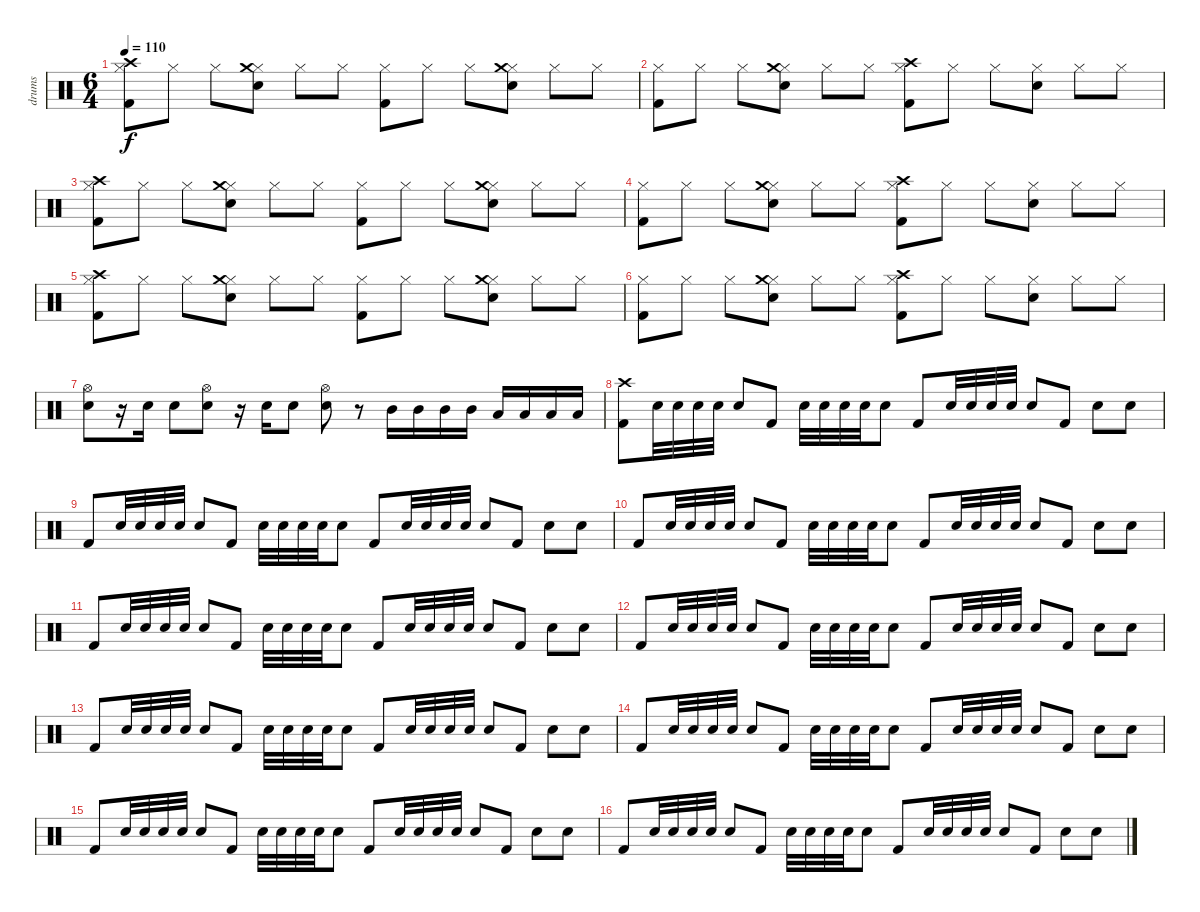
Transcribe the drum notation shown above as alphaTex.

\track ("drums" "drums") {instrument percussion}
\staff {score}
\articulation defaults
\ts (6 4)
\tempo 110
\clef neutral
\ks c
("Hi-Hat (closed)" "Kick (hit) 2" "Crash high (hit)").8{dy f} "Hi-Hat (closed)".8 "Hi-Hat (closed)".8 ("Hi-Hat (closed)" "Snare (hit) 2" "Crash medium (hit)").8 "Hi-Hat (closed)".8 "Hi-Hat (closed)".8 ("Hi-Hat (closed)" "Kick (hit) 2").8 "Hi-Hat (closed)".8 "Hi-Hat (closed)".8 ("Hi-Hat (closed)" "Snare (hit) 2" "Crash medium (hit)").8 "Hi-Hat (closed)".8 "Hi-Hat (closed)".8 |
("Hi-Hat (closed)" "Kick (hit) 2").8 "Hi-Hat (closed)".8 "Hi-Hat (closed)".8 ("Hi-Hat (closed)" "Snare (hit) 2" "Crash medium (hit)").8 "Hi-Hat (closed)".8 "Hi-Hat (closed)".8 ("Hi-Hat (closed)" "Kick (hit) 2" "Crash high (hit)").8 "Hi-Hat (closed)".8 "Hi-Hat (closed)".8 ("Hi-Hat (closed)" "Snare (hit) 2").8 "Hi-Hat (closed)".8 "Hi-Hat (closed)".8 |
("Hi-Hat (closed)" "Kick (hit) 2" "Crash high (hit)").8 "Hi-Hat (closed)".8 "Hi-Hat (closed)".8 ("Hi-Hat (closed)" "Snare (hit) 2" "Crash medium (hit)").8 "Hi-Hat (closed)".8 "Hi-Hat (closed)".8 ("Hi-Hat (closed)" "Kick (hit) 2").8 "Hi-Hat (closed)".8 "Hi-Hat (closed)".8 ("Hi-Hat (closed)" "Snare (hit) 2" "Crash medium (hit)").8 "Hi-Hat (closed)".8 "Hi-Hat (closed)".8 |
("Hi-Hat (closed)" "Kick (hit) 2").8 "Hi-Hat (closed)".8 "Hi-Hat (closed)".8 ("Hi-Hat (closed)" "Snare (hit) 2" "Crash medium (hit)").8 "Hi-Hat (closed)".8 "Hi-Hat (closed)".8 ("Hi-Hat (closed)" "Kick (hit) 2" "Crash high (hit)").8 "Hi-Hat (closed)".8 "Hi-Hat (closed)".8 ("Hi-Hat (closed)" "Snare (hit) 2").8 "Hi-Hat (closed)".8 "Hi-Hat (closed)".8 |
("Hi-Hat (closed)" "Kick (hit) 2" "Crash high (hit)").8 "Hi-Hat (closed)".8 "Hi-Hat (closed)".8 ("Hi-Hat (closed)" "Snare (hit) 2" "Crash medium (hit)").8 "Hi-Hat (closed)".8 "Hi-Hat (closed)".8 ("Hi-Hat (closed)" "Kick (hit) 2").8 "Hi-Hat (closed)".8 "Hi-Hat (closed)".8 ("Hi-Hat (closed)" "Snare (hit) 2" "Crash medium (hit)").8 "Hi-Hat (closed)".8 "Hi-Hat (closed)".8 |
("Hi-Hat (closed)" "Kick (hit) 2").8 "Hi-Hat (closed)".8 "Hi-Hat (closed)".8 ("Hi-Hat (closed)" "Snare (hit) 2" "Crash medium (hit)").8 "Hi-Hat (closed)".8 "Hi-Hat (closed)".8 ("Hi-Hat (closed)" "Kick (hit) 2" "Crash high (hit)").8 "Hi-Hat (closed)".8 "Hi-Hat (closed)".8 ("Hi-Hat (closed)" "Snare (hit) 2").8 "Hi-Hat (closed)".8 "Hi-Hat (closed)".8 |
("Hi-Hat (open)" "Snare (hit) 2").8 r.16 "Snare (hit) 2".16 "Snare (hit) 2".8 ("Hi-Hat (open)" "Snare (hit) 2").8 r.16 "Snare (hit) 2".16 "Snare (hit) 2".8 ("Hi-Hat (open)" "Snare (hit) 2").8 r.8 "Mid Tom (hit)".16 "Mid Tom (hit)".16 "Mid Tom (hit)".16 "Mid Tom (hit)".16 "Low Tom (hit)".16 "Low Tom (hit)".16 "Low Tom (hit)".16 "Low Tom (hit)".16 |
("Crash high (hit)" "Kick (hit) 2").8 "Electric Snare (hit)".32 "Electric Snare (hit)".32 "Electric Snare (hit)".32 "Electric Snare (hit)".32 "Electric Snare (hit)".8 "Kick (hit) 2".8 "Electric Snare (hit)".32 "Electric Snare (hit)".32 "Electric Snare (hit)".32 "Electric Snare (hit)".32 "Electric Snare (hit)".8 "Kick (hit) 2".8 "Electric Snare (hit)".32 "Electric Snare (hit)".32 "Electric Snare (hit)".32 "Electric Snare (hit)".32 "Electric Snare (hit)".8 "Kick (hit) 2".8 "Electric Snare (hit)".8 "Electric Snare (hit)".8 |
"Kick (hit) 2".8 "Electric Snare (hit)".32 "Electric Snare (hit)".32 "Electric Snare (hit)".32 "Electric Snare (hit)".32 "Electric Snare (hit)".8 "Kick (hit) 2".8 "Electric Snare (hit)".32 "Electric Snare (hit)".32 "Electric Snare (hit)".32 "Electric Snare (hit)".32 "Electric Snare (hit)".8 "Kick (hit) 2".8 "Electric Snare (hit)".32 "Electric Snare (hit)".32 "Electric Snare (hit)".32 "Electric Snare (hit)".32 "Electric Snare (hit)".8 "Kick (hit) 2".8 "Electric Snare (hit)".8 "Electric Snare (hit)".8 |
"Kick (hit) 2".8 "Electric Snare (hit)".32 "Electric Snare (hit)".32 "Electric Snare (hit)".32 "Electric Snare (hit)".32 "Electric Snare (hit)".8 "Kick (hit) 2".8 "Electric Snare (hit)".32 "Electric Snare (hit)".32 "Electric Snare (hit)".32 "Electric Snare (hit)".32 "Electric Snare (hit)".8 "Kick (hit) 2".8 "Electric Snare (hit)".32 "Electric Snare (hit)".32 "Electric Snare (hit)".32 "Electric Snare (hit)".32 "Electric Snare (hit)".8 "Kick (hit) 2".8 "Electric Snare (hit)".8 "Electric Snare (hit)".8 |
"Kick (hit) 2".8 "Electric Snare (hit)".32 "Electric Snare (hit)".32 "Electric Snare (hit)".32 "Electric Snare (hit)".32 "Electric Snare (hit)".8 "Kick (hit) 2".8 "Electric Snare (hit)".32 "Electric Snare (hit)".32 "Electric Snare (hit)".32 "Electric Snare (hit)".32 "Electric Snare (hit)".8 "Kick (hit) 2".8 "Electric Snare (hit)".32 "Electric Snare (hit)".32 "Electric Snare (hit)".32 "Electric Snare (hit)".32 "Electric Snare (hit)".8 "Kick (hit) 2".8 "Electric Snare (hit)".8 "Electric Snare (hit)".8 |
"Kick (hit) 2".8 "Electric Snare (hit)".32 "Electric Snare (hit)".32 "Electric Snare (hit)".32 "Electric Snare (hit)".32 "Electric Snare (hit)".8 "Kick (hit) 2".8 "Electric Snare (hit)".32 "Electric Snare (hit)".32 "Electric Snare (hit)".32 "Electric Snare (hit)".32 "Electric Snare (hit)".8 "Kick (hit) 2".8 "Electric Snare (hit)".32 "Electric Snare (hit)".32 "Electric Snare (hit)".32 "Electric Snare (hit)".32 "Electric Snare (hit)".8 "Kick (hit) 2".8 "Electric Snare (hit)".8 "Electric Snare (hit)".8 |
"Kick (hit) 2".8 "Electric Snare (hit)".32 "Electric Snare (hit)".32 "Electric Snare (hit)".32 "Electric Snare (hit)".32 "Electric Snare (hit)".8 "Kick (hit) 2".8 "Electric Snare (hit)".32 "Electric Snare (hit)".32 "Electric Snare (hit)".32 "Electric Snare (hit)".32 "Electric Snare (hit)".8 "Kick (hit) 2".8 "Electric Snare (hit)".32 "Electric Snare (hit)".32 "Electric Snare (hit)".32 "Electric Snare (hit)".32 "Electric Snare (hit)".8 "Kick (hit) 2".8 "Electric Snare (hit)".8 "Electric Snare (hit)".8 |
"Kick (hit) 2".8 "Electric Snare (hit)".32 "Electric Snare (hit)".32 "Electric Snare (hit)".32 "Electric Snare (hit)".32 "Electric Snare (hit)".8 "Kick (hit) 2".8 "Electric Snare (hit)".32 "Electric Snare (hit)".32 "Electric Snare (hit)".32 "Electric Snare (hit)".32 "Electric Snare (hit)".8 "Kick (hit) 2".8 "Electric Snare (hit)".32 "Electric Snare (hit)".32 "Electric Snare (hit)".32 "Electric Snare (hit)".32 "Electric Snare (hit)".8 "Kick (hit) 2".8 "Electric Snare (hit)".8 "Electric Snare (hit)".8 |
"Kick (hit) 2".8 "Electric Snare (hit)".32 "Electric Snare (hit)".32 "Electric Snare (hit)".32 "Electric Snare (hit)".32 "Electric Snare (hit)".8 "Kick (hit) 2".8 "Electric Snare (hit)".32 "Electric Snare (hit)".32 "Electric Snare (hit)".32 "Electric Snare (hit)".32 "Electric Snare (hit)".8 "Kick (hit) 2".8 "Electric Snare (hit)".32 "Electric Snare (hit)".32 "Electric Snare (hit)".32 "Electric Snare (hit)".32 "Electric Snare (hit)".8 "Kick (hit) 2".8 "Electric Snare (hit)".8 "Electric Snare (hit)".8 |
"Kick (hit) 2".8 "Electric Snare (hit)".32 "Electric Snare (hit)".32 "Electric Snare (hit)".32 "Electric Snare (hit)".32 "Electric Snare (hit)".8 "Kick (hit) 2".8 "Electric Snare (hit)".32 "Electric Snare (hit)".32 "Electric Snare (hit)".32 "Electric Snare (hit)".32 "Electric Snare (hit)".8 "Kick (hit) 2".8 "Electric Snare (hit)".32 "Electric Snare (hit)".32 "Electric Snare (hit)".32 "Electric Snare (hit)".32 "Electric Snare (hit)".8 "Kick (hit) 2".8 "Electric Snare (hit)".8 "Electric Snare (hit)".8
